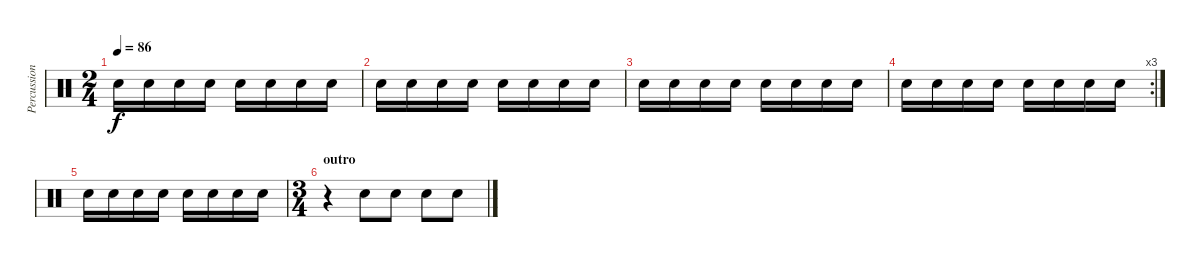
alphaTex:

\track ("Percussions" "Percussion") {instrument percussion}
\staff {score}
\articulation defaults
\ts (2 4)
\tempo 86
\clef neutral
\ks c "Snare (hit) 2".16{dy f} "Snare (hit) 2".16 "Snare (hit) 2".16 "Snare (hit) 2".16 "Snare (hit) 2".16 "Snare (hit) 2".16 "Snare (hit) 2".16 "Snare (hit) 2".16
|
"Snare (hit) 2".16 "Snare (hit) 2".16 "Snare (hit) 2".16 "Snare (hit) 2".16 "Snare (hit) 2".16 "Snare (hit) 2".16 "Snare (hit) 2".16 "Snare (hit) 2".16 |
"Snare (hit) 2".16 "Snare (hit) 2".16 "Snare (hit) 2".16 "Snare (hit) 2".16 "Snare (hit) 2".16 "Snare (hit) 2".16 "Snare (hit) 2".16 "Snare (hit) 2".16 |
\rc 3 "Snare (hit) 2".16 "Snare (hit) 2".16 "Snare (hit) 2".16 "Snare (hit) 2".16 "Snare (hit) 2".16 "Snare (hit) 2".16 "Snare (hit) 2".16 "Snare (hit) 2".16
|
"Snare (hit) 2".16 "Snare (hit) 2".16 "Snare (hit) 2".16 "Snare (hit) 2".16 "Snare (hit) 2".16 "Snare (hit) 2".16 "Snare (hit) 2".16 "Snare (hit) 2".16 |
\ts (3 4)
\section ("" "outro")
r.4 "Snare (hit) 2".8 "Snare (hit) 2".8 "Snare (hit) 2".8 "Snare (hit) 2".8
